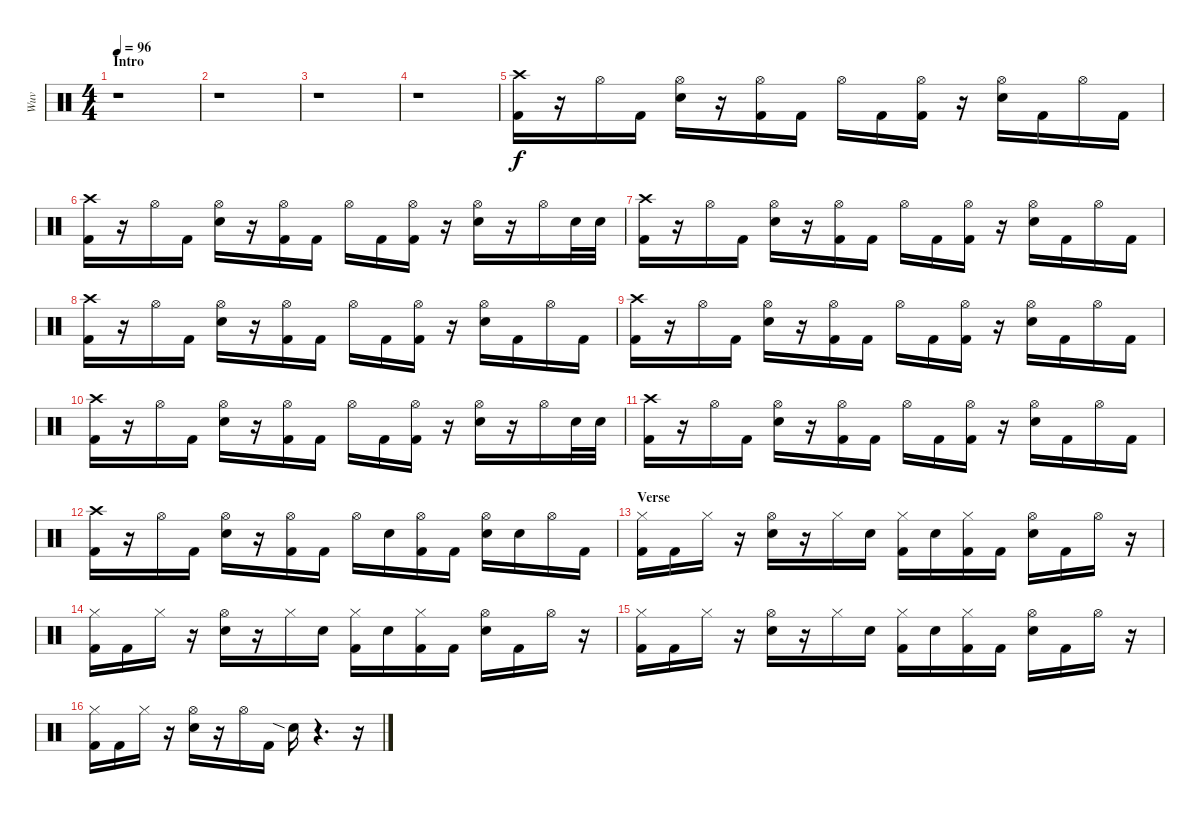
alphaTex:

\track ("Wuv" "Wuv") {instrument percussion}
\staff {score}
\articulation defaults
\ts (4 4)
\section ("" "Intro")
\tempo 96
\clef neutral
\ks c
r.1{dy f} |
r.1 |
r.1 |
r.1 |
("Crash high (hit)" "Kick (hit) 2").16 r.16 "Hi-Hat (open)".16 "Kick (hit) 2".16 ("Hi-Hat (open)" "Snare (hit) 2").16 r.16 ("Hi-Hat (open)" "Kick (hit) 2").16 "Kick (hit) 2".16 "Hi-Hat (open)".16 "Kick (hit) 2".16 ("Hi-Hat (open)" "Kick (hit) 2").16 r.16 ("Hi-Hat (open)" "Snare (hit) 2").16 "Kick (hit) 2".16 "Hi-Hat (open)".16 "Kick (hit) 2".16 |
("Crash high (hit)" "Kick (hit) 2").16 r.16 "Hi-Hat (open)".16 "Kick (hit) 2".16 ("Hi-Hat (open)" "Snare (hit) 2").16 r.16 ("Hi-Hat (open)" "Kick (hit) 2").16 "Kick (hit) 2".16 "Hi-Hat (open)".16 "Kick (hit) 2".16 ("Hi-Hat (open)" "Kick (hit) 2").16 r.16 ("Hi-Hat (open)" "Snare (hit) 2").16 r.16 "Hi-Hat (open)".16 "Snare (hit) 2".32 "Snare (hit) 2".32 |
("Crash high (hit)" "Kick (hit) 2").16 r.16 "Hi-Hat (open)".16 "Kick (hit) 2".16 ("Hi-Hat (open)" "Snare (hit) 2").16 r.16 ("Hi-Hat (open)" "Kick (hit) 2").16 "Kick (hit) 2".16 "Hi-Hat (open)".16 "Kick (hit) 2".16 ("Hi-Hat (open)" "Kick (hit) 2").16 r.16 ("Hi-Hat (open)" "Snare (hit) 2").16 "Kick (hit) 2".16 "Hi-Hat (open)".16 "Kick (hit) 2".16 |
("Crash high (hit)" "Kick (hit) 2").16 r.16 "Hi-Hat (open)".16 "Kick (hit) 2".16 ("Hi-Hat (open)" "Snare (hit) 2").16 r.16 ("Hi-Hat (open)" "Kick (hit) 2").16 "Kick (hit) 2".16 "Hi-Hat (open)".16 "Kick (hit) 2".16 ("Hi-Hat (open)" "Kick (hit) 2").16 r.16 ("Hi-Hat (open)" "Snare (hit) 2").16 "Kick (hit) 2".16 "Hi-Hat (open)".16 "Kick (hit) 2".16 |
("Crash high (hit)" "Kick (hit) 2").16 r.16 "Hi-Hat (open)".16 "Kick (hit) 2".16 ("Hi-Hat (open)" "Snare (hit) 2").16 r.16 ("Hi-Hat (open)" "Kick (hit) 2").16 "Kick (hit) 2".16 "Hi-Hat (open)".16 "Kick (hit) 2".16 ("Hi-Hat (open)" "Kick (hit) 2").16 r.16 ("Hi-Hat (open)" "Snare (hit) 2").16 "Kick (hit) 2".16 "Hi-Hat (open)".16 "Kick (hit) 2".16 |
("Crash high (hit)" "Kick (hit) 2").16 r.16 "Hi-Hat (open)".16 "Kick (hit) 2".16 ("Hi-Hat (open)" "Snare (hit) 2").16 r.16 ("Hi-Hat (open)" "Kick (hit) 2").16 "Kick (hit) 2".16 "Hi-Hat (open)".16 "Kick (hit) 2".16 ("Hi-Hat (open)" "Kick (hit) 2").16 r.16 ("Hi-Hat (open)" "Snare (hit) 2").16 r.16 "Hi-Hat (open)".16 "Snare (hit) 2".32 "Snare (hit) 2".32 |
("Crash high (hit)" "Kick (hit) 2").16 r.16 "Hi-Hat (open)".16 "Kick (hit) 2".16 ("Hi-Hat (open)" "Snare (hit) 2").16 r.16 ("Hi-Hat (open)" "Kick (hit) 2").16 "Kick (hit) 2".16 "Hi-Hat (open)".16 "Kick (hit) 2".16 ("Hi-Hat (open)" "Kick (hit) 2").16 r.16 ("Hi-Hat (open)" "Snare (hit) 2").16 "Kick (hit) 2".16 "Hi-Hat (open)".16 "Kick (hit) 2".16 |
("Crash high (hit)" "Kick (hit) 2").16 r.16 "Hi-Hat (open)".16 "Kick (hit) 2".16 ("Hi-Hat (open)" "Snare (hit) 2").16 r.16 ("Hi-Hat (open)" "Kick (hit) 2").16 "Kick (hit) 2".16 "Hi-Hat (open)".16 "Snare (hit) 2".16 ("Hi-Hat (open)" "Kick (hit) 2").16 "Kick (hit) 2".16 ("Hi-Hat (open)" "Snare (hit) 2").16 "Snare (hit) 2".16 "Hi-Hat (open)".16 "Kick (hit) 2".16 |
\section ("" "Verse")
("Hi-Hat (closed)" "Kick (hit) 2").16 "Kick (hit) 2".16 "Hi-Hat (closed)".16 r.16 ("Hi-Hat (open)" "Snare (hit) 2").16 r.16 "Hi-Hat (closed)".16 "Snare (hit) 2".16 ("Hi-Hat (closed)" "Kick (hit) 2").16 "Snare (hit) 2".16 ("Hi-Hat (closed)" "Kick (hit) 2").16 "Kick (hit) 2".16 ("Hi-Hat (open)" "Snare (hit) 2").16 "Kick (hit) 2".16 "Hi-Hat (open)".16 r.16 |
("Hi-Hat (closed)" "Kick (hit) 2").16 "Kick (hit) 2".16 "Hi-Hat (closed)".16 r.16 ("Hi-Hat (open)" "Snare (hit) 2").16 r.16 "Hi-Hat (closed)".16 "Snare (hit) 2".16 ("Hi-Hat (closed)" "Kick (hit) 2").16 "Snare (hit) 2".16 ("Hi-Hat (closed)" "Kick (hit) 2").16 "Kick (hit) 2".16 ("Hi-Hat (open)" "Snare (hit) 2").16 "Kick (hit) 2".16 "Hi-Hat (open)".16 r.16 |
("Hi-Hat (closed)" "Kick (hit) 2").16 "Kick (hit) 2".16 "Hi-Hat (closed)".16 r.16 ("Hi-Hat (open)" "Snare (hit) 2").16 r.16 "Hi-Hat (closed)".16 "Snare (hit) 2".16 ("Hi-Hat (closed)" "Kick (hit) 2").16 "Snare (hit) 2".16 ("Hi-Hat (closed)" "Kick (hit) 2").16 "Kick (hit) 2".16 ("Hi-Hat (open)" "Snare (hit) 2").16 "Kick (hit) 2".16 "Hi-Hat (open)".16 r.16 |
("Hi-Hat (closed)" "Kick (hit) 2").16 "Kick (hit) 2".16 "Hi-Hat (closed)".16 r.16 ("Hi-Hat (open)" "Snare (hit) 2").16 r.16 "Hi-Hat (open)".16 "Kick (hit) 2".16 "Snare (hit) 2"{sia}.16 r.4{d} r.16
